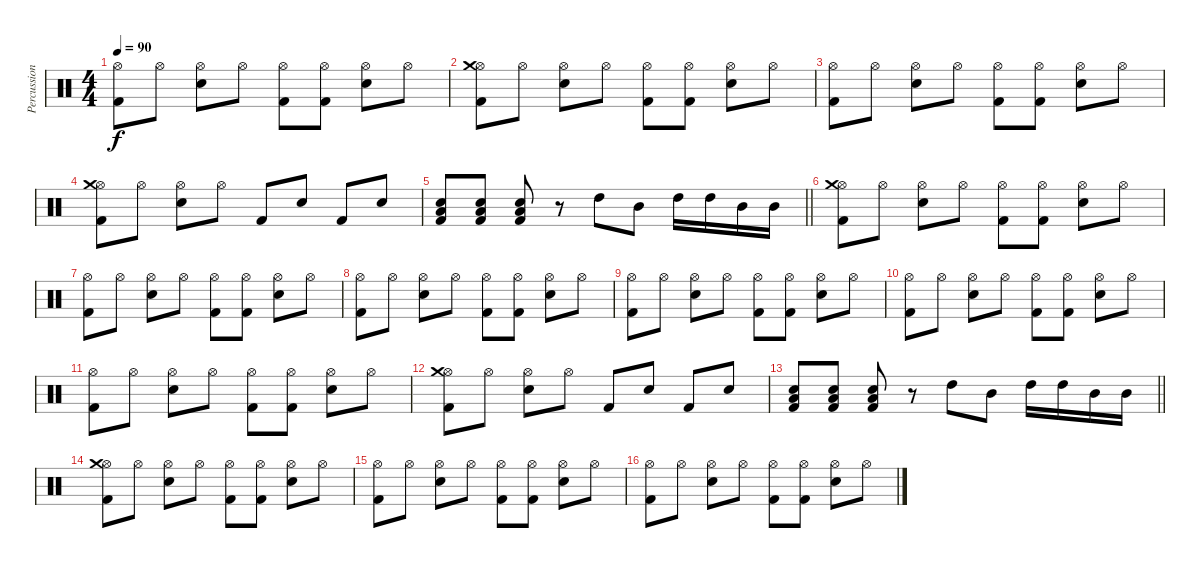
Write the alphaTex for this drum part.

\track ("Percussion" "Percussion") {instrument percussion}
\staff {score}
\articulation defaults
\ts (4 4)
\tempo 90
\clef neutral
\ks c
("Hi-Hat (open)" "Kick (hit) 2").8{dy f} "Hi-Hat (open)".8 ("Hi-Hat (open)" "Electric Snare (hit)").8 "Hi-Hat (open)".8 ("Hi-Hat (open)" "Kick (hit) 2").8 ("Hi-Hat (open)" "Kick (hit) 2").8 ("Hi-Hat (open)" "Electric Snare (hit)").8 "Hi-Hat (open)".8 |
("Hi-Hat (open)" "Kick (hit) 2" "Crash medium (hit)").8 "Hi-Hat (open)".8 ("Hi-Hat (open)" "Electric Snare (hit)").8 "Hi-Hat (open)".8 ("Hi-Hat (open)" "Kick (hit) 2").8 ("Hi-Hat (open)" "Kick (hit) 2").8 ("Hi-Hat (open)" "Electric Snare (hit)").8 "Hi-Hat (open)".8 |
("Hi-Hat (open)" "Kick (hit) 2").8 "Hi-Hat (open)".8 ("Hi-Hat (open)" "Electric Snare (hit)").8 "Hi-Hat (open)".8 ("Hi-Hat (open)" "Kick (hit) 2").8 ("Hi-Hat (open)" "Kick (hit) 2").8 ("Hi-Hat (open)" "Electric Snare (hit)").8 "Hi-Hat (open)".8 |
("Hi-Hat (open)" "Kick (hit) 2" "Crash medium (hit)").8 "Hi-Hat (open)".8 ("Hi-Hat (open)" "Electric Snare (hit)").8 "Hi-Hat (open)".8 "Kick (hit) 2".8 "Electric Snare (hit)".8 "Kick (hit) 2".8 "Electric Snare (hit)".8 |
\barLineRight lightlight
("Electric Snare (hit)" "Kick (hit) 2" "Low Tom (hit)").8 ("Electric Snare (hit)" "Kick (hit) 2" "Low Tom (hit)").8 ("Electric Snare (hit)" "Kick (hit) 2" "Low Tom (hit)").8 r.8 "High Tom (hit)".8 "Mid Tom (hit)".8 "High Tom (hit)".16 "High Tom (hit)".16 "Mid Tom (hit)".16 "Mid Tom (hit)".16 |
("Hi-Hat (open)" "Kick (hit) 2" "Crash medium (hit)").8 "Hi-Hat (open)".8 ("Hi-Hat (open)" "Electric Snare (hit)").8 "Hi-Hat (open)".8 ("Hi-Hat (open)" "Kick (hit) 2").8 ("Hi-Hat (open)" "Kick (hit) 2").8 ("Hi-Hat (open)" "Electric Snare (hit)").8 "Hi-Hat (open)".8 |
("Hi-Hat (open)" "Kick (hit) 2").8 "Hi-Hat (open)".8 ("Hi-Hat (open)" "Electric Snare (hit)").8 "Hi-Hat (open)".8 ("Hi-Hat (open)" "Kick (hit) 2").8 ("Hi-Hat (open)" "Kick (hit) 2").8 ("Hi-Hat (open)" "Electric Snare (hit)").8 "Hi-Hat (open)".8 |
("Hi-Hat (open)" "Kick (hit) 2").8 "Hi-Hat (open)".8 ("Hi-Hat (open)" "Electric Snare (hit)").8 "Hi-Hat (open)".8 ("Hi-Hat (open)" "Kick (hit) 2").8 ("Hi-Hat (open)" "Kick (hit) 2").8 ("Hi-Hat (open)" "Electric Snare (hit)").8 "Hi-Hat (open)".8 |
("Hi-Hat (open)" "Kick (hit) 2").8 "Hi-Hat (open)".8 ("Hi-Hat (open)" "Electric Snare (hit)").8 "Hi-Hat (open)".8 ("Hi-Hat (open)" "Kick (hit) 2").8 ("Hi-Hat (open)" "Kick (hit) 2").8 ("Hi-Hat (open)" "Electric Snare (hit)").8 "Hi-Hat (open)".8 |
("Hi-Hat (open)" "Kick (hit) 2").8 "Hi-Hat (open)".8 ("Hi-Hat (open)" "Electric Snare (hit)").8 "Hi-Hat (open)".8 ("Hi-Hat (open)" "Kick (hit) 2").8 ("Hi-Hat (open)" "Kick (hit) 2").8 ("Hi-Hat (open)" "Electric Snare (hit)").8 "Hi-Hat (open)".8 |
("Hi-Hat (open)" "Kick (hit) 2").8 "Hi-Hat (open)".8 ("Hi-Hat (open)" "Electric Snare (hit)").8 "Hi-Hat (open)".8 ("Hi-Hat (open)" "Kick (hit) 2").8 ("Hi-Hat (open)" "Kick (hit) 2").8 ("Hi-Hat (open)" "Electric Snare (hit)").8 "Hi-Hat (open)".8 |
("Hi-Hat (open)" "Kick (hit) 2" "Crash medium (hit)").8 "Hi-Hat (open)".8 ("Hi-Hat (open)" "Electric Snare (hit)").8 "Hi-Hat (open)".8 "Kick (hit) 2".8 "Electric Snare (hit)".8 "Kick (hit) 2".8 "Electric Snare (hit)".8 |
\barLineRight lightlight
("Electric Snare (hit)" "Kick (hit) 2" "Low Tom (hit)").8 ("Electric Snare (hit)" "Kick (hit) 2" "Low Tom (hit)").8 ("Electric Snare (hit)" "Kick (hit) 2" "Low Tom (hit)").8 r.8 "High Tom (hit)".8 "Mid Tom (hit)".8 "High Tom (hit)".16 "High Tom (hit)".16 "Mid Tom (hit)".16 "Mid Tom (hit)".16 |
("Hi-Hat (open)" "Kick (hit) 2" "Crash medium (hit)").8 "Hi-Hat (open)".8 ("Hi-Hat (open)" "Electric Snare (hit)").8 "Hi-Hat (open)".8 ("Hi-Hat (open)" "Kick (hit) 2").8 ("Hi-Hat (open)" "Kick (hit) 2").8 ("Hi-Hat (open)" "Electric Snare (hit)").8 "Hi-Hat (open)".8 |
("Hi-Hat (open)" "Kick (hit) 2").8 "Hi-Hat (open)".8 ("Hi-Hat (open)" "Electric Snare (hit)").8 "Hi-Hat (open)".8 ("Hi-Hat (open)" "Kick (hit) 2").8 ("Hi-Hat (open)" "Kick (hit) 2").8 ("Hi-Hat (open)" "Electric Snare (hit)").8 "Hi-Hat (open)".8 |
("Hi-Hat (open)" "Kick (hit) 2").8 "Hi-Hat (open)".8 ("Hi-Hat (open)" "Electric Snare (hit)").8 "Hi-Hat (open)".8 ("Hi-Hat (open)" "Kick (hit) 2").8 ("Hi-Hat (open)" "Kick (hit) 2").8 ("Hi-Hat (open)" "Electric Snare (hit)").8 "Hi-Hat (open)".8
